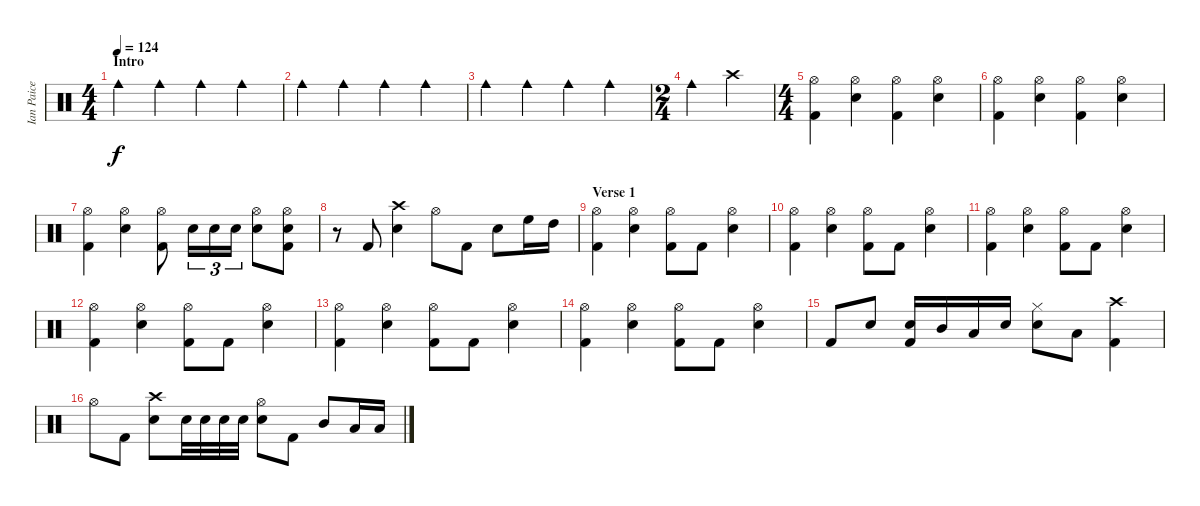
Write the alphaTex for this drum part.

\track ("Ian Paice (drum)" "Ian Paice ") {instrument percussion}
\staff {score}
\articulation defaults
\ts (4 4)
\section ("" "Intro")
\tempo 124
\clef neutral
\ks c "Cowbell medium (hit)".4{dy f} "Cowbell medium (hit)".4 "Cowbell medium (hit)".4 "Cowbell medium (hit)".4
|
"Cowbell medium (hit)".4 "Cowbell medium (hit)".4 "Cowbell medium (hit)".4 "Cowbell medium (hit)".4 |
"Cowbell medium (hit)".4 "Cowbell medium (hit)".4 "Cowbell medium (hit)".4 "Cowbell medium (hit)".4 |
\ts (2 4)
"Cowbell medium (hit)".4 "Crash high (hit)".4 |
\ts (4 4)
("Hi-Hat (open)" "Kick (hit) 2").4 ("Snare (hit) 2" "Hi-Hat (open)").4 ("Hi-Hat (open)" "Kick (hit) 2").4 ("Snare (hit) 2" "Hi-Hat (open)").4 |
("Hi-Hat (open)" "Kick (hit) 2").4 ("Snare (hit) 2" "Hi-Hat (open)").4 ("Hi-Hat (open)" "Kick (hit) 2").4 ("Snare (hit) 2" "Hi-Hat (open)").4 |
("Hi-Hat (open)" "Kick (hit) 2").4 ("Snare (hit) 2" "Hi-Hat (open)").4 ("Hi-Hat (open)" "Kick (hit) 2").8 "Snare (hit) 2".16{tu (3 2)} "Snare (hit) 2".16{tu (3 2)} "Snare (hit) 2".16{tu (3 2)} ("Snare (hit) 2" "Hi-Hat (open)").8 ("Snare (hit) 2" "Hi-Hat (open)" "Kick (hit) 2").8 |
r.8 "Kick (hit) 2".8 ("Snare (hit) 2" "Crash high (hit)").4 "Hi-Hat (open)".8 "Kick (hit) 2".8 "Snare (hit) 2".8 "High Floor Tom (hit)".16 "High Tom (hit)".16 |
\section ("" "Verse 1")
("Hi-Hat (open)" "Kick (hit) 2").4 ("Snare (hit) 2" "Hi-Hat (open)").4 ("Hi-Hat (open)" "Kick (hit) 2").8 "Kick (hit) 2".8 ("Snare (hit) 2" "Hi-Hat (open)").4 |
("Hi-Hat (open)" "Kick (hit) 2").4 ("Snare (hit) 2" "Hi-Hat (open)").4 ("Hi-Hat (open)" "Kick (hit) 2").8 "Kick (hit) 2".8 ("Snare (hit) 2" "Hi-Hat (open)").4 |
("Hi-Hat (open)" "Kick (hit) 2").4 ("Snare (hit) 2" "Hi-Hat (open)").4 ("Hi-Hat (open)" "Kick (hit) 2").8 "Kick (hit) 2".8 ("Snare (hit) 2" "Hi-Hat (open)").4 |
("Hi-Hat (open)" "Kick (hit) 2").4 ("Snare (hit) 2" "Hi-Hat (open)").4 ("Hi-Hat (open)" "Kick (hit) 2").8 "Kick (hit) 2".8 ("Snare (hit) 2" "Hi-Hat (open)").4 |
("Hi-Hat (open)" "Kick (hit) 2").4 ("Snare (hit) 2" "Hi-Hat (open)").4 ("Hi-Hat (open)" "Kick (hit) 2").8 "Kick (hit) 2".8 ("Snare (hit) 2" "Hi-Hat (open)").4 |
("Hi-Hat (open)" "Kick (hit) 2").4 ("Snare (hit) 2" "Hi-Hat (open)").4 ("Hi-Hat (open)" "Kick (hit) 2").8 "Kick (hit) 2".8 ("Snare (hit) 2" "Hi-Hat (open)").4 |
"Kick (hit) 2".8 "Snare (hit) 2".8 ("Snare (hit) 2" "Kick (hit) 2").16 "Mid Tom (hit)".16 "Low Tom (hit)".16 "Snare (hit) 2".16 ("Snare (hit) 2" "Hi-Hat (closed)").8 "Low Floor Tom (hit)".8 ("Crash high (hit)" "Kick (hit) 2").4 |
"Hi-Hat (open)".8 "Kick (hit) 2".8 ("Crash high (hit)" "Snare (hit) 2").8 "Snare (hit) 2".32 "Snare (hit) 2".32 "Snare (hit) 2".32 "Snare (hit) 2".32 ("Snare (hit) 2" "Hi-Hat (open)").8 "Kick (hit) 2".8 "Mid Tom (hit)".8 "Low Tom (hit)".16 "Low Floor Tom (hit)".16
